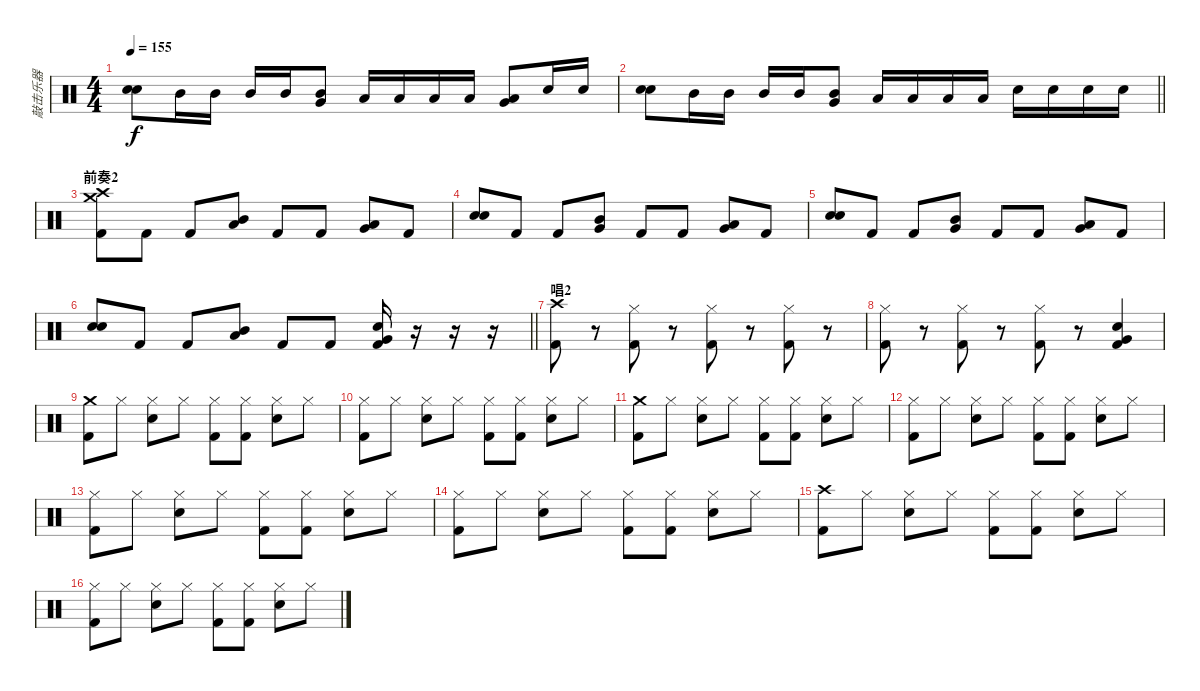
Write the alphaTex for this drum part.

\track ("敲击乐器" "敲击乐器") {instrument percussion}
\staff {score}
\articulation defaults
\ts (4 4)
\tempo 155
\clef neutral
\ks c
("Snare (hit) 2" "Snare (hit) 2").8{bd 60 dy f} "Mid Tom (hit)".16 "Mid Tom (hit)".16 "Mid Tom (hit)".16 "Mid Tom (hit)".16 ("Very Low Tom (hit)" "Mid Tom (hit)").8{bd 60} "Low Tom (hit)".16 "Low Tom (hit)".16 "Low Tom (hit)".16 "Low Tom (hit)".16 ("Low Tom (hit)" "Very Low Tom (hit)").8{bd 60} "Snare (hit) 2".16 "Snare (hit) 2".16 |
\barLineRight lightlight
("Snare (hit) 2" "Snare (hit) 2").8{bd 60} "Mid Tom (hit)".16 "Mid Tom (hit)".16 "Mid Tom (hit)".16 "Mid Tom (hit)".16 ("Very Low Tom (hit)" "Mid Tom (hit)").8{bd 60} "Low Tom (hit)".16 "Low Tom (hit)".16 "Low Tom (hit)".16 "Low Tom (hit)".16 "Snare (hit) 2".16 "Snare (hit) 2".16 "Snare (hit) 2".16 "Snare (hit) 2".16 |
\section ("" "前奏2")
("Crash high (hit)" "Crash medium (hit)" "Kick (hit) 2").8 "Kick (hit) 2".8 "Kick (hit) 2".8 ("Mid Tom (hit)" "Low Tom (hit)").8{bd 60} "Kick (hit) 2".8 "Kick (hit) 2".8 ("Low Tom (hit)" "Very Low Tom (hit)").8{bd 60} "Kick (hit) 2".8 |
("Snare (hit) 2" "Snare (hit) 2").8{bd 60} "Kick (hit) 2".8 "Kick (hit) 2".8 ("Very Low Tom (hit)" "Mid Tom (hit)").8{bd 60} "Kick (hit) 2".8 "Kick (hit) 2".8 ("Low Tom (hit)" "Very Low Tom (hit)").8{bd 60} "Kick (hit) 2".8 |
("Snare (hit) 2" "Snare (hit) 2").8{bd 60} "Kick (hit) 2".8 "Kick (hit) 2".8 ("Very Low Tom (hit)" "Mid Tom (hit)").8{bd 60} "Kick (hit) 2".8 "Kick (hit) 2".8 ("Low Tom (hit)" "Very Low Tom (hit)").8{bd 60} "Kick (hit) 2".8 |
\barLineRight lightlight
("Snare (hit) 2" "Snare (hit) 2").8{bd 60} "Kick (hit) 2".8 "Kick (hit) 2".8 ("Mid Tom (hit)" "Low Tom (hit)").8{bd 60} "Kick (hit) 2".8 "Kick (hit) 2".8 ("Very Low Tom (hit)" "Snare (hit) 2" "Kick (hit) 2").16 r.16 r.16 r.16 |
\section ("" "唱2")
("Crash high (hit)" "Kick (hit) 2").8 r.8 ("Hi-Hat (closed)" "Kick (hit) 2").8 r.8 ("Hi-Hat (closed)" "Kick (hit) 2").8 r.8 ("Hi-Hat (closed)" "Kick (hit) 2").8 r.8 |
("Hi-Hat (closed)" "Kick (hit) 2").8 r.8 ("Hi-Hat (closed)" "Kick (hit) 2").8 r.8 ("Hi-Hat (closed)" "Kick (hit) 2").8 r.8 ("Very Low Tom (hit)" "Snare (hit) 2" "Kick (hit) 2").4 |
("Crash medium (hit)" "Kick (hit) 2").8 "Hi-Hat (closed)".8 ("Hi-Hat (closed)" "Snare (hit) 2").8 "Hi-Hat (closed)".8 ("Hi-Hat (closed)" "Kick (hit) 2").8 ("Hi-Hat (closed)" "Kick (hit) 2").8 ("Hi-Hat (closed)" "Snare (hit) 2").8 "Hi-Hat (closed)".8 |
("Hi-Hat (closed)" "Kick (hit) 2").8 "Hi-Hat (closed)".8 ("Hi-Hat (closed)" "Snare (hit) 2").8 "Hi-Hat (closed)".8 ("Hi-Hat (closed)" "Kick (hit) 2").8 ("Hi-Hat (closed)" "Kick (hit) 2").8 ("Hi-Hat (closed)" "Snare (hit) 2").8 "Hi-Hat (closed)".8 |
("Crash medium (hit)" "Kick (hit) 2").8 "Hi-Hat (closed)".8 ("Hi-Hat (closed)" "Snare (hit) 2").8 "Hi-Hat (closed)".8 ("Hi-Hat (closed)" "Kick (hit) 2").8 ("Hi-Hat (closed)" "Kick (hit) 2").8 ("Hi-Hat (closed)" "Snare (hit) 2").8 "Hi-Hat (closed)".8 |
("Hi-Hat (closed)" "Kick (hit) 2").8 "Hi-Hat (closed)".8 ("Hi-Hat (closed)" "Snare (hit) 2").8 "Hi-Hat (closed)".8 ("Hi-Hat (closed)" "Kick (hit) 2").8 ("Hi-Hat (closed)" "Kick (hit) 2").8 ("Hi-Hat (closed)" "Snare (hit) 2").8 "Hi-Hat (closed)".8 |
("Hi-Hat (closed)" "Kick (hit) 2").8 "Hi-Hat (closed)".8 ("Hi-Hat (closed)" "Snare (hit) 2").8 "Hi-Hat (closed)".8 ("Hi-Hat (closed)" "Kick (hit) 2").8 ("Hi-Hat (closed)" "Kick (hit) 2").8 ("Hi-Hat (closed)" "Snare (hit) 2").8 "Hi-Hat (closed)".8 |
("Hi-Hat (closed)" "Kick (hit) 2").8 "Hi-Hat (closed)".8 ("Hi-Hat (closed)" "Snare (hit) 2").8 "Hi-Hat (closed)".8 ("Hi-Hat (closed)" "Kick (hit) 2").8 ("Hi-Hat (closed)" "Kick (hit) 2").8 ("Hi-Hat (closed)" "Snare (hit) 2").8 "Hi-Hat (closed)".8 |
("Crash high (hit)" "Kick (hit) 2").8 "Hi-Hat (closed)".8 ("Hi-Hat (closed)" "Snare (hit) 2").8 "Hi-Hat (closed)".8 ("Hi-Hat (closed)" "Kick (hit) 2").8 ("Hi-Hat (closed)" "Kick (hit) 2").8 ("Hi-Hat (closed)" "Snare (hit) 2").8 "Hi-Hat (closed)".8 |
("Hi-Hat (closed)" "Kick (hit) 2").8 "Hi-Hat (closed)".8 ("Hi-Hat (closed)" "Snare (hit) 2").8 "Hi-Hat (closed)".8 ("Hi-Hat (closed)" "Kick (hit) 2").8 ("Hi-Hat (closed)" "Kick (hit) 2").8 ("Hi-Hat (closed)" "Snare (hit) 2").8 "Hi-Hat (closed)".8
